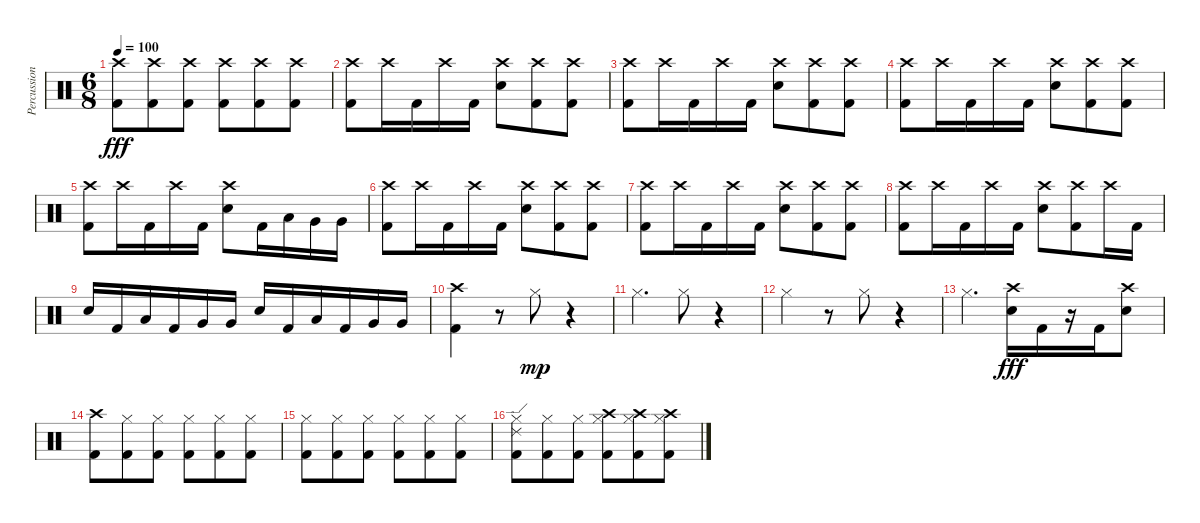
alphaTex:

\track ("Percussion" "Percussion") {instrument percussion}
\staff {score}
\articulation defaults
\ts (6 8)
\tempo 100
\clef neutral
\ks c
("Crash high (hit)" "Kick (hit) 2").8{dy fff} ("Crash high (hit)" "Kick (hit) 2").8 ("Crash high (hit)" "Kick (hit) 2").8 ("Crash high (hit)" "Kick (hit) 2").8 ("Crash high (hit)" "Kick (hit) 2").8 ("Crash high (hit)" "Kick (hit) 2").8 |
("Crash high (hit)" "Kick (hit) 2").8 "Crash high (hit)".16 "Kick (hit) 2".16 "Crash high (hit)".16 "Kick (hit) 2".16 ("Crash high (hit)" "Electric Snare (hit)").8 ("Crash high (hit)" "Kick (hit) 2").8 ("Crash high (hit)" "Kick (hit) 2").8 |
("Crash high (hit)" "Kick (hit) 2").8 "Crash high (hit)".16 "Kick (hit) 2".16 "Crash high (hit)".16 "Kick (hit) 2".16 ("Crash high (hit)" "Electric Snare (hit)").8 ("Crash high (hit)" "Kick (hit) 2").8 ("Crash high (hit)" "Kick (hit) 2").8 |
("Crash high (hit)" "Kick (hit) 2").8 "Crash high (hit)".16 "Kick (hit) 2".16 "Crash high (hit)".16 "Kick (hit) 2".16 ("Crash high (hit)" "Electric Snare (hit)").8 ("Crash high (hit)" "Kick (hit) 2").8 ("Crash high (hit)" "Kick (hit) 2").8 |
("Crash high (hit)" "Kick (hit) 2").8 "Crash high (hit)".16 "Kick (hit) 2".16 "Crash high (hit)".16 "Kick (hit) 2".16 ("Crash high (hit)" "Electric Snare (hit)").8 "Kick (hit) 2".16 "Low Tom (hit)".16 "Very Low Tom (hit)".16 "Very Low Tom (hit)".16 |
("Crash high (hit)" "Kick (hit) 2").8 "Crash high (hit)".16 "Kick (hit) 2".16 "Crash high (hit)".16 "Kick (hit) 2".16 ("Crash high (hit)" "Electric Snare (hit)").8 ("Crash high (hit)" "Kick (hit) 2").8 ("Crash high (hit)" "Kick (hit) 2").8 |
("Crash high (hit)" "Kick (hit) 2").8 "Crash high (hit)".16 "Kick (hit) 2".16 "Crash high (hit)".16 "Kick (hit) 2".16 ("Crash high (hit)" "Electric Snare (hit)").8 ("Crash high (hit)" "Kick (hit) 2").8 ("Crash high (hit)" "Kick (hit) 2").8 |
("Crash high (hit)" "Kick (hit) 2").8 "Crash high (hit)".16 "Kick (hit) 2".16 "Crash high (hit)".16 "Kick (hit) 2".16 ("Crash high (hit)" "Electric Snare (hit)").8 ("Crash high (hit)" "Kick (hit) 2").8 "Crash high (hit)".16 "Kick (hit) 2".16 |
"Electric Snare (hit)".16 "Kick (hit) 2".16 "Low Tom (hit)".16 "Kick (hit) 2".16 "Very Low Tom (hit)".16 "Very Low Tom (hit)".16 "Electric Snare (hit)".16 "Kick (hit) 2".16 "Low Tom (hit)".16 "Kick (hit) 2".16 "Very Low Tom (hit)".16 "Very Low Tom (hit)".16 |
("Crash high (hit)" "Kick (hit) 2").4 r.8 "Hi-Hat (closed)".8{dy mp} r.4 |
"Hi-Hat (closed)".4{d} "Hi-Hat (closed)".8 r.4 |
"Hi-Hat (closed)".4 r.8 "Hi-Hat (closed)".8 r.4 |
"Hi-Hat (closed)".4{d} ("Crash high (hit)" "Electric Snare (hit)").16{dy fff} "Kick (hit) 2".16 r.16 "Kick (hit) 2".16 ("Crash high (hit)" "Electric Snare (hit)").8 |
("Crash high (hit)" "Kick (hit) 2").8 ("Hi-Hat (closed)" "Kick (hit) 2").8 ("Hi-Hat (closed)" "Kick (hit) 2").8 ("Hi-Hat (closed)" "Kick (hit) 2").8 ("Hi-Hat (closed)" "Kick (hit) 2").8 ("Hi-Hat (closed)" "Kick (hit) 2").8 |
("Hi-Hat (closed)" "Kick (hit) 2").8 ("Hi-Hat (closed)" "Kick (hit) 2").8 ("Hi-Hat (closed)" "Kick (hit) 2").8 ("Hi-Hat (closed)" "Kick (hit) 2").8 ("Hi-Hat (closed)" "Kick (hit) 2").8 ("Hi-Hat (closed)" "Kick (hit) 2").8 |
("Ride (edge) 2" "Hi-Hat (closed)" "Kick (hit) 2").8 ("Hi-Hat (closed)" "Kick (hit) 2").8 ("Hi-Hat (closed)" "Kick (hit) 2").8 ("Crash high (hit)" "Hi-Hat (closed)" "Kick (hit) 2").8 ("Crash high (hit)" "Hi-Hat (closed)" "Kick (hit) 2").8 ("Crash high (hit)" "Hi-Hat (closed)" "Kick (hit) 2").8
